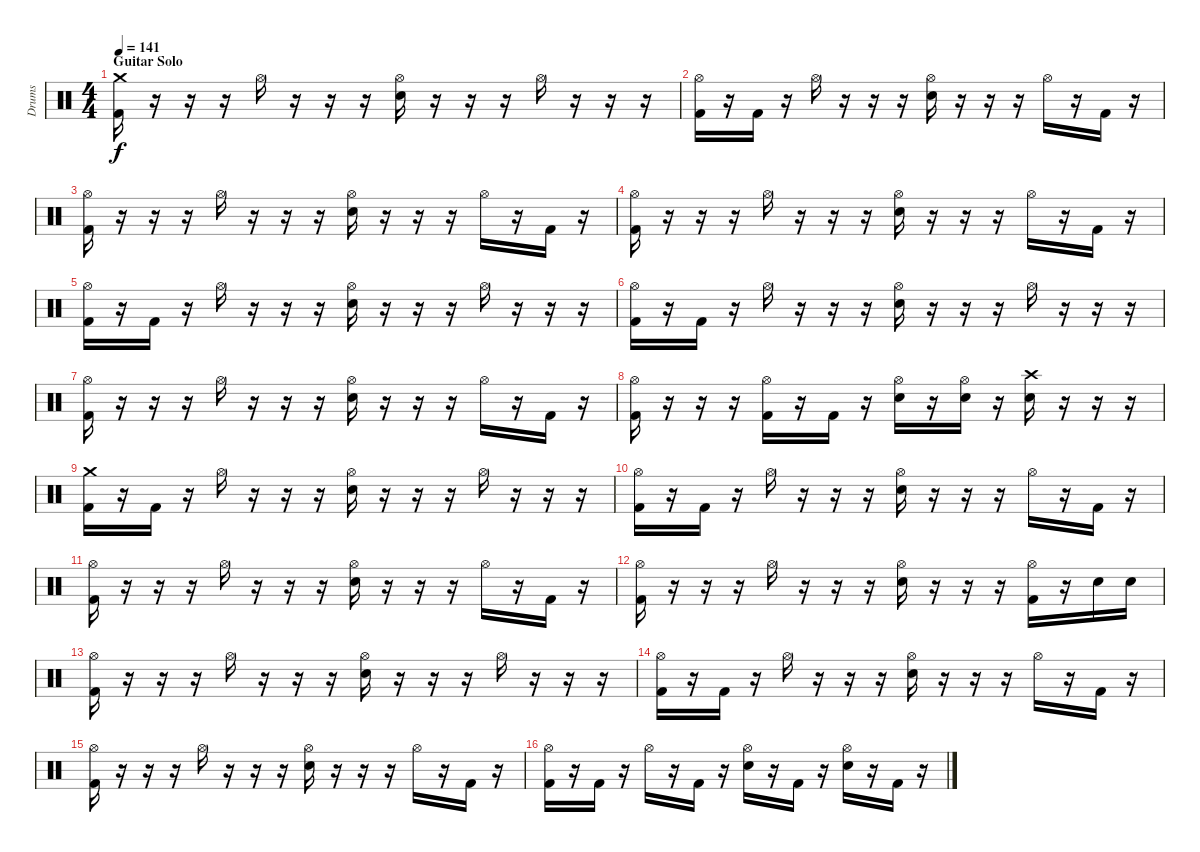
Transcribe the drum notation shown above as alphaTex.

\track ("Drums" "Drums") {instrument percussion}
\staff {score}
\articulation defaults
\ts (4 4)
\section ("" "Guitar Solo")
\tempo 141
\clef neutral
\ks c
("Crash medium (hit)" "Kick (hit) 2").16{dy f} r.16 r.16 r.16 "Hi-Hat (open)".16 r.16 r.16 r.16 ("Hi-Hat (open)" "Electric Snare (hit)").16 r.16 r.16 r.16 "Hi-Hat (open)".16 r.16 r.16 r.16 |
("Hi-Hat (open)" "Kick (hit) 2").16 r.16 "Kick (hit) 2".16 r.16 "Hi-Hat (open)".16 r.16 r.16 r.16 ("Hi-Hat (open)" "Electric Snare (hit)").16 r.16 r.16 r.16 "Hi-Hat (open)".16 r.16 "Kick (hit) 2".16 r.16 |
("Hi-Hat (open)" "Kick (hit) 2").16 r.16 r.16 r.16 "Hi-Hat (open)".16 r.16 r.16 r.16 ("Hi-Hat (open)" "Electric Snare (hit)").16 r.16 r.16 r.16 "Hi-Hat (open)".16 r.16 "Kick (hit) 2".16 r.16 |
("Hi-Hat (open)" "Kick (hit) 2").16 r.16 r.16 r.16 "Hi-Hat (open)".16 r.16 r.16 r.16 ("Hi-Hat (open)" "Electric Snare (hit)").16 r.16 r.16 r.16 "Hi-Hat (open)".16 r.16 "Kick (hit) 2".16 r.16 |
("Hi-Hat (open)" "Kick (hit) 2").16 r.16 "Kick (hit) 2".16 r.16 "Hi-Hat (open)".16 r.16 r.16 r.16 ("Hi-Hat (open)" "Electric Snare (hit)").16 r.16 r.16 r.16 "Hi-Hat (open)".16 r.16 r.16 r.16 |
("Hi-Hat (open)" "Kick (hit) 2").16 r.16 "Kick (hit) 2".16 r.16 "Hi-Hat (open)".16 r.16 r.16 r.16 ("Hi-Hat (open)" "Electric Snare (hit)").16 r.16 r.16 r.16 "Hi-Hat (open)".16 r.16 r.16 r.16 |
("Hi-Hat (open)" "Kick (hit) 2").16 r.16 r.16 r.16 "Hi-Hat (open)".16 r.16 r.16 r.16 ("Hi-Hat (open)" "Electric Snare (hit)").16 r.16 r.16 r.16 "Hi-Hat (open)".16 r.16 "Kick (hit) 2".16 r.16 |
("Hi-Hat (open)" "Kick (hit) 2").16 r.16 r.16 r.16 ("Hi-Hat (open)" "Kick (hit) 2").16 r.16 "Kick (hit) 2".16 r.16 ("Hi-Hat (open)" "Electric Snare (hit)").16 r.16 ("Hi-Hat (open)" "Electric Snare (hit)").16 r.16 ("Crash high (hit)" "Electric Snare (hit)").16 r.16 r.16 r.16 |
("Crash medium (hit)" "Kick (hit) 2").16 r.16 "Kick (hit) 2".16 r.16 "Hi-Hat (open)".16 r.16 r.16 r.16 ("Hi-Hat (open)" "Electric Snare (hit)").16 r.16 r.16 r.16 "Hi-Hat (open)".16 r.16 r.16 r.16 |
("Hi-Hat (open)" "Kick (hit) 2").16 r.16 "Kick (hit) 2".16 r.16 "Hi-Hat (open)".16 r.16 r.16 r.16 ("Hi-Hat (open)" "Electric Snare (hit)").16 r.16 r.16 r.16 "Hi-Hat (open)".16 r.16 "Kick (hit) 2".16 r.16 |
("Hi-Hat (open)" "Kick (hit) 2").16 r.16 r.16 r.16 "Hi-Hat (open)".16 r.16 r.16 r.16 ("Hi-Hat (open)" "Electric Snare (hit)").16 r.16 r.16 r.16 "Hi-Hat (open)".16 r.16 "Kick (hit) 2".16 r.16 |
("Hi-Hat (open)" "Kick (hit) 2").16 r.16 r.16 r.16 "Hi-Hat (open)".16 r.16 r.16 r.16 ("Hi-Hat (open)" "Electric Snare (hit)").16 r.16 r.16 r.16 ("Hi-Hat (open)" "Kick (hit) 2").16 r.16 "Electric Snare (hit)".16 "Electric Snare (hit)".16 |
("Hi-Hat (open)" "Kick (hit) 2").16 r.16 r.16 r.16 "Hi-Hat (open)".16 r.16 r.16 r.16 ("Hi-Hat (open)" "Electric Snare (hit)").16 r.16 r.16 r.16 "Hi-Hat (open)".16 r.16 r.16 r.16 |
("Hi-Hat (open)" "Kick (hit) 2").16 r.16 "Kick (hit) 2".16 r.16 "Hi-Hat (open)".16 r.16 r.16 r.16 ("Hi-Hat (open)" "Electric Snare (hit)").16 r.16 r.16 r.16 "Hi-Hat (open)".16 r.16 "Kick (hit) 2".16 r.16 |
("Hi-Hat (open)" "Kick (hit) 2").16 r.16 r.16 r.16 "Hi-Hat (open)".16 r.16 r.16 r.16 ("Hi-Hat (open)" "Electric Snare (hit)").16 r.16 r.16 r.16 "Hi-Hat (open)".16 r.16 "Kick (hit) 2".16 r.16 |
("Hi-Hat (open)" "Kick (hit) 2").16 r.16 "Kick (hit) 2".16 r.16 "Hi-Hat (open)".16 r.16 "Kick (hit) 2".16 r.16 ("Hi-Hat (open)" "Electric Snare (hit)").16 r.16 "Kick (hit) 2".16 r.16 ("Hi-Hat (open)" "Electric Snare (hit)").16 r.16 "Kick (hit) 2".16 r.16
